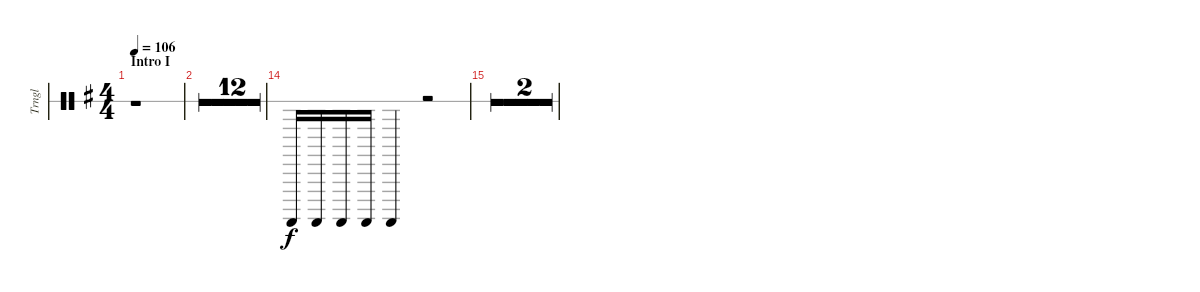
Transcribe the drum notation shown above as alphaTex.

\defaultSystemsLayout 4
\bracketExtendMode groupsimilarinstruments
\otherSystemsTrackNameOrientation horizontal
\track ("Triangle" "Trngl") {multiBarRest instrument percussion}
\staff {score 1}
\articulation defaults
\ts (4 4)
\section ("" "Intro I")
\tempo 106
\clef neutral
\ks g
r.1{dy f} |
r.1 |
r.1 |
r.1 |
r.1 |
r.1 |
r.1 |
r.1 |
r.1 |
r.1 |
r.1 |
r.1 |
r.1 |
"Triangle (hit)"{acc forcenatural}.16 "Triangle (hit)"{acc forcenatural}.16 "Triangle (hit)"{acc forcenatural}.16 "Triangle (hit)"{acc forcenatural}.16 "Triangle (hit)"{acc forcenatural}.4 r.2 |
r.1 |
r.1
